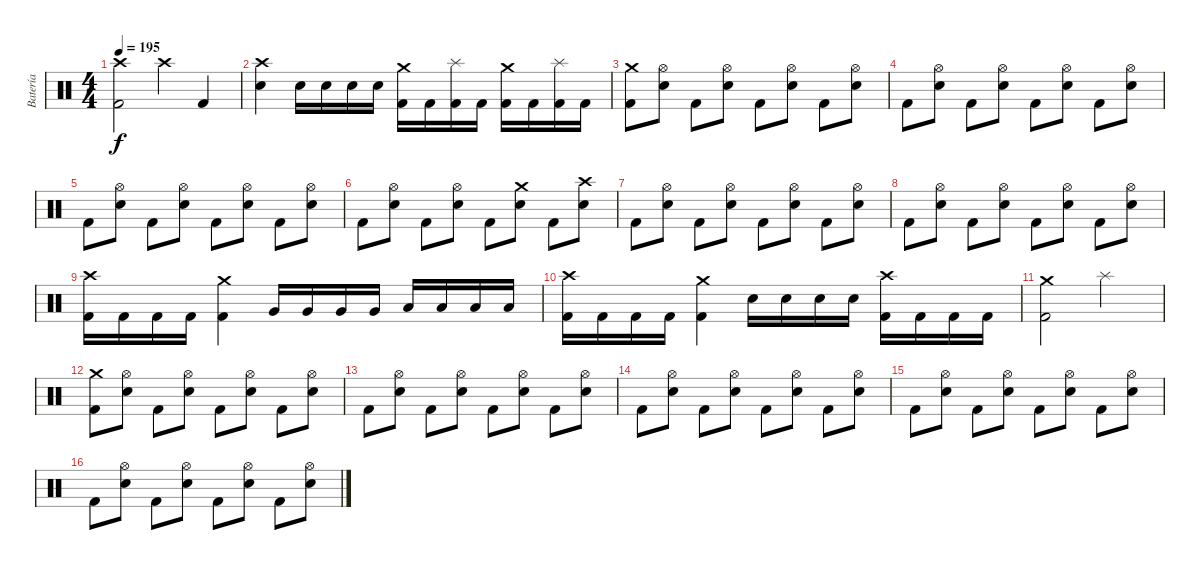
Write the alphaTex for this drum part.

\track ("Batería" "Batería") {instrument percussion}
\staff {score}
\articulation defaults
\ts (4 4)
\tempo 195
\clef neutral
\ks c
("Crash high (hit)" "Kick (hit) 2").2{dy f} "Crash high (hit)".4 "Kick (hit) 2".4 |
("Crash high (hit)" "Snare (hit) 2").4 "Snare (hit) 2".16 "Snare (hit) 2".16 "Snare (hit) 2".16 "Snare (hit) 2".16 ("Crash medium (hit)" "Kick (hit) 2").16 "Kick (hit) 2".16 ("Splash (hit)" "Kick (hit) 2").16 "Kick (hit) 2".16 ("Crash medium (hit)" "Kick (hit) 2").16 "Kick (hit) 2".16 ("Splash (hit)" "Kick (hit) 2").16 "Kick (hit) 2".16 |
("Crash medium (hit)" "Kick (hit) 2").8 ("Hi-Hat (open)" "Snare (hit) 2").8 "Kick (hit) 2".8 ("Hi-Hat (open)" "Snare (hit) 2").8 "Kick (hit) 2".8 ("Hi-Hat (open)" "Snare (hit) 2").8 "Kick (hit) 2".8 ("Hi-Hat (open)" "Snare (hit) 2").8 |
"Kick (hit) 2".8 ("Hi-Hat (open)" "Snare (hit) 2").8 "Kick (hit) 2".8 ("Hi-Hat (open)" "Snare (hit) 2").8 "Kick (hit) 2".8 ("Hi-Hat (open)" "Snare (hit) 2").8 "Kick (hit) 2".8 ("Hi-Hat (open)" "Snare (hit) 2").8 |
"Kick (hit) 2".8 ("Hi-Hat (open)" "Snare (hit) 2").8 "Kick (hit) 2".8 ("Hi-Hat (open)" "Snare (hit) 2").8 "Kick (hit) 2".8 ("Hi-Hat (open)" "Snare (hit) 2").8 "Kick (hit) 2".8 ("Hi-Hat (open)" "Snare (hit) 2").8 |
"Kick (hit) 2".8 ("Hi-Hat (open)" "Snare (hit) 2").8 "Kick (hit) 2".8 ("Hi-Hat (open)" "Snare (hit) 2").8 "Kick (hit) 2".8 ("Crash medium (hit)" "Snare (hit) 2").8 "Kick (hit) 2".8 ("Crash high (hit)" "Snare (hit) 2").8 |
"Kick (hit) 2".8 ("Hi-Hat (open)" "Snare (hit) 2").8 "Kick (hit) 2".8 ("Hi-Hat (open)" "Snare (hit) 2").8 "Kick (hit) 2".8 ("Hi-Hat (open)" "Snare (hit) 2").8 "Kick (hit) 2".8 ("Hi-Hat (open)" "Snare (hit) 2").8 |
"Kick (hit) 2".8 ("Hi-Hat (open)" "Snare (hit) 2").8 "Kick (hit) 2".8 ("Hi-Hat (open)" "Snare (hit) 2").8 "Kick (hit) 2".8 ("Hi-Hat (open)" "Snare (hit) 2").8 "Kick (hit) 2".8 ("Hi-Hat (open)" "Snare (hit) 2").8 |
("Crash high (hit)" "Kick (hit) 2").16 "Kick (hit) 2".16 "Kick (hit) 2".16 "Kick (hit) 2".16 ("Crash medium (hit)" "Kick (hit) 2").4 "Very Low Tom (hit)".16 "Very Low Tom (hit)".16 "Very Low Tom (hit)".16 "Very Low Tom (hit)".16 "Low Floor Tom (hit)".16 "Low Floor Tom (hit)".16 "Low Floor Tom (hit)".16 "Low Floor Tom (hit)".16 |
("Crash high (hit)" "Kick (hit) 2").16 "Kick (hit) 2".16 "Kick (hit) 2".16 "Kick (hit) 2".16 ("Crash medium (hit)" "Kick (hit) 2").4 "Snare (hit) 2".16 "Snare (hit) 2".16 "Snare (hit) 2".16 "Snare (hit) 2".16 ("Crash high (hit)" "Kick (hit) 2").16 "Kick (hit) 2".16 "Kick (hit) 2".16 "Kick (hit) 2".16 |
("Crash medium (hit)" "Kick (hit) 2").2 "Splash (hit)".2 |
("Crash medium (hit)" "Kick (hit) 2").8 ("Hi-Hat (open)" "Snare (hit) 2").8 "Kick (hit) 2".8 ("Hi-Hat (open)" "Snare (hit) 2").8 "Kick (hit) 2".8 ("Hi-Hat (open)" "Snare (hit) 2").8 "Kick (hit) 2".8 ("Hi-Hat (open)" "Snare (hit) 2").8 |
"Kick (hit) 2".8 ("Hi-Hat (open)" "Snare (hit) 2").8 "Kick (hit) 2".8 ("Hi-Hat (open)" "Snare (hit) 2").8 "Kick (hit) 2".8 ("Hi-Hat (open)" "Snare (hit) 2").8 "Kick (hit) 2".8 ("Hi-Hat (open)" "Snare (hit) 2").8 |
"Kick (hit) 2".8 ("Hi-Hat (open)" "Snare (hit) 2").8 "Kick (hit) 2".8 ("Hi-Hat (open)" "Snare (hit) 2").8 "Kick (hit) 2".8 ("Hi-Hat (open)" "Snare (hit) 2").8 "Kick (hit) 2".8 ("Hi-Hat (open)" "Snare (hit) 2").8 |
"Kick (hit) 2".8 ("Hi-Hat (open)" "Snare (hit) 2").8 "Kick (hit) 2".8 ("Hi-Hat (open)" "Snare (hit) 2").8 "Kick (hit) 2".8 ("Hi-Hat (open)" "Snare (hit) 2").8 "Kick (hit) 2".8 ("Hi-Hat (open)" "Snare (hit) 2").8 |
"Kick (hit) 2".8 ("Hi-Hat (open)" "Snare (hit) 2").8 "Kick (hit) 2".8 ("Hi-Hat (open)" "Snare (hit) 2").8 "Kick (hit) 2".8 ("Hi-Hat (open)" "Snare (hit) 2").8 "Kick (hit) 2".8 ("Hi-Hat (open)" "Snare (hit) 2").8
